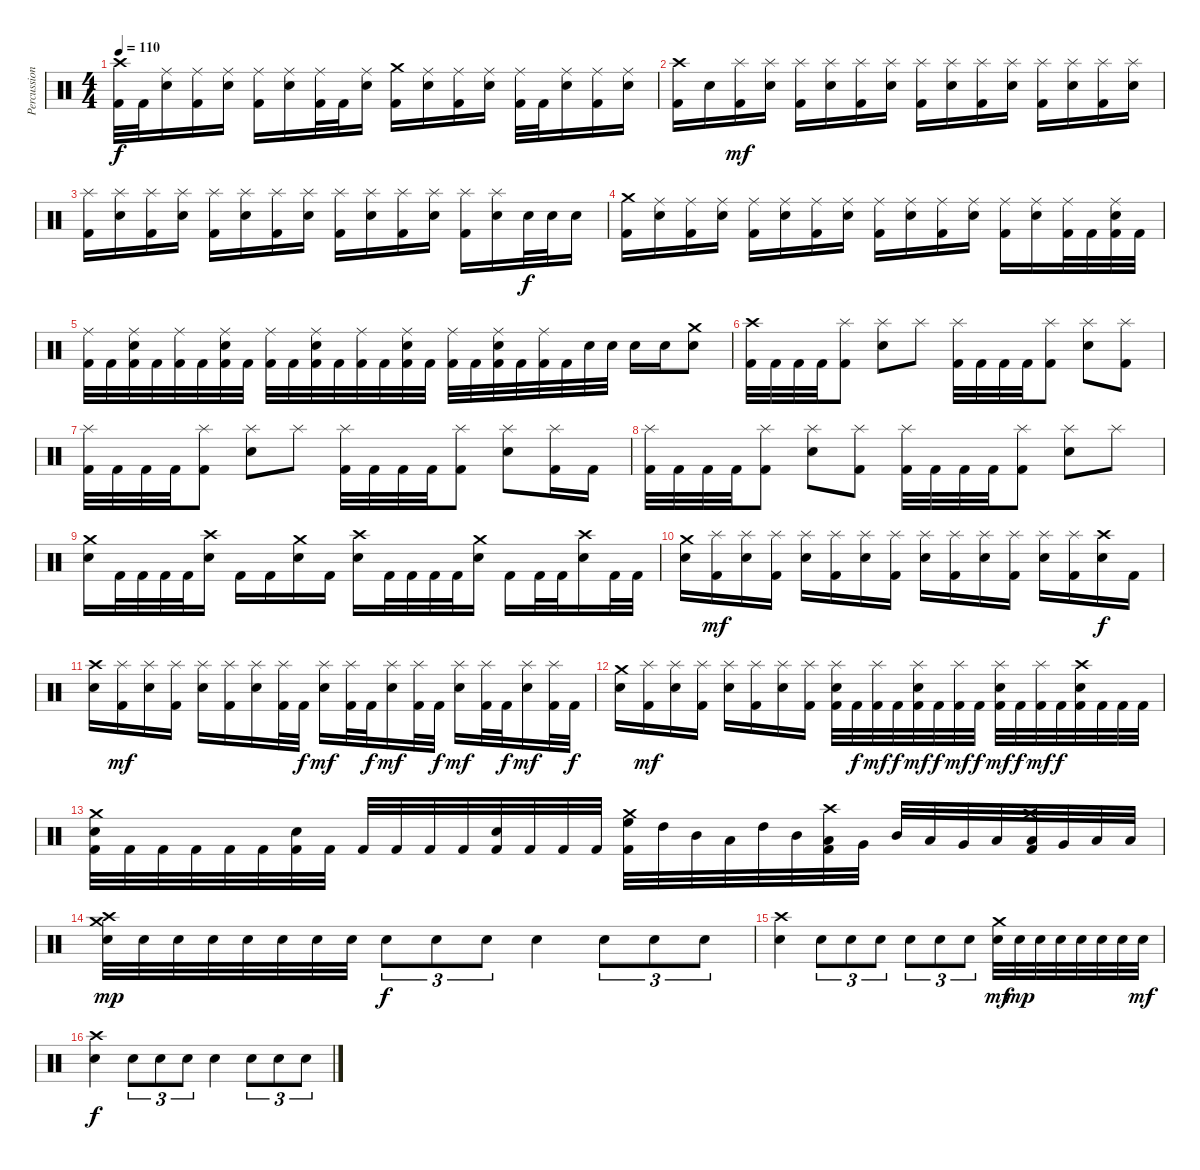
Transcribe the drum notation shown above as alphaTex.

\track ("Percussion" "Percussion") {instrument percussion}
\staff {score}
\articulation defaults
\ts (4 4)
\tempo 110
\clef neutral
\ks c
("Crash high (hit)" "Kick (hit) 2").32{dy f} "Kick (hit) 2".32 ("Ride (middle)" "Snare (hit) 2").16 ("Ride (middle)" "Kick (hit) 2").16 ("Ride (middle)" "Snare (hit) 2").16 ("Ride (middle)" "Kick (hit) 2").16 ("Ride (middle)" "Snare (hit) 2").16 ("Ride (middle)" "Kick (hit) 2").32 "Kick (hit) 2".32 ("Ride (middle)" "Snare (hit) 2").16 ("Crash medium (hit)" "Kick (hit) 2").16 ("Ride (middle)" "Snare (hit) 2").16 ("Ride (middle)" "Kick (hit) 2").16 ("Ride (middle)" "Snare (hit) 2").16 ("Ride (middle)" "Kick (hit) 2").32 "Kick (hit) 2".32 ("Ride (middle)" "Snare (hit) 2").16 ("Ride (middle)" "Kick (hit) 2").16 ("Ride (middle)" "Snare (hit) 2").16 |
("Crash high (hit)" "Kick (hit) 2").16 "Snare (hit) 2".16 ("Splash (hit)" "Kick (hit) 2").16{dy mf} ("Splash (hit)" "Snare (hit) 2").16 ("Splash (hit)" "Kick (hit) 2").16 ("Splash (hit)" "Snare (hit) 2").16 ("Splash (hit)" "Kick (hit) 2").16 ("Splash (hit)" "Snare (hit) 2").16 ("Splash (hit)" "Kick (hit) 2").16 ("Splash (hit)" "Snare (hit) 2").16 ("Splash (hit)" "Kick (hit) 2").16 ("Splash (hit)" "Snare (hit) 2").16 ("Splash (hit)" "Kick (hit) 2").16 ("Splash (hit)" "Snare (hit) 2").16 ("Splash (hit)" "Kick (hit) 2").16 ("Splash (hit)" "Snare (hit) 2").16 |
("Splash (hit)" "Kick (hit) 2").16 ("Splash (hit)" "Snare (hit) 2").16 ("Splash (hit)" "Kick (hit) 2").16 ("Splash (hit)" "Snare (hit) 2").16 ("Splash (hit)" "Kick (hit) 2").16 ("Splash (hit)" "Snare (hit) 2").16 ("Splash (hit)" "Kick (hit) 2").16 ("Splash (hit)" "Snare (hit) 2").16 ("Splash (hit)" "Kick (hit) 2").16 ("Splash (hit)" "Snare (hit) 2").16 ("Splash (hit)" "Kick (hit) 2").16 ("Splash (hit)" "Snare (hit) 2").16 ("Splash (hit)" "Kick (hit) 2").16 ("Splash (hit)" "Snare (hit) 2").16 "Snare (hit) 2".32{dy f} "Snare (hit) 2".32 "Snare (hit) 2".16 |
("Crash medium (hit)" "Kick (hit) 2").16 ("Ride (middle)" "Snare (hit) 2").16 ("Ride (middle)" "Kick (hit) 2").16 ("Ride (middle)" "Snare (hit) 2").16 ("Ride (middle)" "Kick (hit) 2").16 ("Ride (middle)" "Snare (hit) 2").16 ("Ride (middle)" "Kick (hit) 2").16 ("Ride (middle)" "Snare (hit) 2").16 ("Ride (middle)" "Kick (hit) 2").16 ("Ride (middle)" "Snare (hit) 2").16 ("Ride (middle)" "Kick (hit) 2").16 ("Ride (middle)" "Snare (hit) 2").16 ("Ride (middle)" "Kick (hit) 2").16 ("Ride (middle)" "Snare (hit) 2").16 ("Ride (middle)" "Kick (hit) 2").32 "Kick (hit) 2".32 ("Ride (middle)" "Snare (hit) 2" "Kick (hit) 2").32 "Kick (hit) 2".32 |
("Ride (middle)" "Kick (hit) 2").32 "Kick (hit) 2".32 ("Ride (middle)" "Snare (hit) 2" "Kick (hit) 2").32 "Kick (hit) 2".32 ("Ride (middle)" "Kick (hit) 2").32 "Kick (hit) 2".32 ("Ride (middle)" "Snare (hit) 2" "Kick (hit) 2").32 "Kick (hit) 2".32 ("Ride (middle)" "Kick (hit) 2").32 "Kick (hit) 2".32 ("Ride (middle)" "Snare (hit) 2" "Kick (hit) 2").32 "Kick (hit) 2".32 ("Ride (middle)" "Kick (hit) 2").32 "Kick (hit) 2".32 ("Ride (middle)" "Snare (hit) 2" "Kick (hit) 2").32 "Kick (hit) 2".32 ("Ride (middle)" "Kick (hit) 2").32 "Kick (hit) 2".32 ("Ride (middle)" "Snare (hit) 2" "Kick (hit) 2").32 "Kick (hit) 2".32 ("Ride (middle)" "Kick (hit) 2").32 "Kick (hit) 2".32 "Snare (hit) 2".32 "Snare (hit) 2".32 "Snare (hit) 2".16 "Snare (hit) 2".16 ("Crash medium (hit)" "Snare (hit) 2").8 |
("Crash high (hit)" "Kick (hit) 2").32 "Kick (hit) 2".32 "Kick (hit) 2".32 "Kick (hit) 2".32 ("Splash (hit)" "Kick (hit) 2").8 ("Splash (hit)" "Snare (hit) 2").8 "Splash (hit)".8 ("Splash (hit)" "Kick (hit) 2").32 "Kick (hit) 2".32 "Kick (hit) 2".32 "Kick (hit) 2".32 ("Splash (hit)" "Kick (hit) 2").8 ("Splash (hit)" "Snare (hit) 2").8 ("Splash (hit)" "Kick (hit) 2").8 |
("Splash (hit)" "Kick (hit) 2").32 "Kick (hit) 2".32 "Kick (hit) 2".32 "Kick (hit) 2".32 ("Splash (hit)" "Kick (hit) 2").8 ("Splash (hit)" "Snare (hit) 2").8 "Splash (hit)".8 ("Splash (hit)" "Kick (hit) 2").32 "Kick (hit) 2".32 "Kick (hit) 2".32 "Kick (hit) 2".32 ("Splash (hit)" "Kick (hit) 2").8 ("Splash (hit)" "Snare (hit) 2").8 ("Splash (hit)" "Kick (hit) 2").16 "Kick (hit) 2".16 |
("Splash (hit)" "Kick (hit) 2").32 "Kick (hit) 2".32 "Kick (hit) 2".32 "Kick (hit) 2".32 ("Splash (hit)" "Kick (hit) 2").8 ("Splash (hit)" "Snare (hit) 2").8 ("Splash (hit)" "Kick (hit) 2").8 ("Splash (hit)" "Kick (hit) 2").32 "Kick (hit) 2".32 "Kick (hit) 2".32 "Kick (hit) 2".32 ("Splash (hit)" "Kick (hit) 2").8 ("Splash (hit)" "Snare (hit) 2").8 "Splash (hit)".8 |
("Crash medium (hit)" "Snare (hit) 2").16 "Kick (hit) 2".32 "Kick (hit) 2".32 "Kick (hit) 2".32 "Kick (hit) 2".32 ("Crash high (hit)" "Snare (hit) 2").16 "Kick (hit) 2".16 "Kick (hit) 2".16 ("Crash medium (hit)" "Snare (hit) 2").16 "Kick (hit) 2".16 ("Crash high (hit)" "Snare (hit) 2").16 "Kick (hit) 2".32 "Kick (hit) 2".32 "Kick (hit) 2".32 "Kick (hit) 2".32 ("Crash medium (hit)" "Snare (hit) 2").16 "Kick (hit) 2".16 "Kick (hit) 2".32 "Kick (hit) 2".32 ("Crash high (hit)" "Snare (hit) 2").16 "Kick (hit) 2".32 "Kick (hit) 2".32 |
("Crash medium (hit)" "Snare (hit) 2").16 ("Splash (hit)" "Kick (hit) 2").16{dy mf} ("Splash (hit)" "Snare (hit) 2").16 ("Splash (hit)" "Kick (hit) 2").16 ("Splash (hit)" "Snare (hit) 2").16 ("Splash (hit)" "Kick (hit) 2").16 ("Splash (hit)" "Snare (hit) 2").16 ("Splash (hit)" "Kick (hit) 2").16 ("Splash (hit)" "Snare (hit) 2").16 ("Splash (hit)" "Kick (hit) 2").16 ("Splash (hit)" "Snare (hit) 2").16 ("Splash (hit)" "Kick (hit) 2").16 ("Splash (hit)" "Snare (hit) 2").16 ("Splash (hit)" "Kick (hit) 2").16 ("Crash high (hit)" "Snare (hit) 2").16{dy f} "Kick (hit) 2".16 |
("Crash high (hit)" "Snare (hit) 2").16 ("Splash (hit)" "Kick (hit) 2").16{dy mf} ("Splash (hit)" "Snare (hit) 2").16 ("Splash (hit)" "Kick (hit) 2").16 ("Splash (hit)" "Snare (hit) 2").16 ("Splash (hit)" "Kick (hit) 2").16 ("Splash (hit)" "Snare (hit) 2").16 ("Splash (hit)" "Kick (hit) 2").32 "Kick (hit) 2".32{dy f} ("Splash (hit)" "Snare (hit) 2").16{dy mf} ("Splash (hit)" "Kick (hit) 2").32 "Kick (hit) 2".32{dy f} ("Splash (hit)" "Snare (hit) 2").16{dy mf} ("Splash (hit)" "Kick (hit) 2").32 "Kick (hit) 2".32{dy f} ("Splash (hit)" "Snare (hit) 2").16{dy mf} ("Splash (hit)" "Kick (hit) 2").32 "Kick (hit) 2".32{dy f} ("Splash (hit)" "Snare (hit) 2").16{dy mf} ("Splash (hit)" "Kick (hit) 2").32 "Kick (hit) 2".32{dy f} |
("Crash medium (hit)" "Snare (hit) 2").16 ("Splash (hit)" "Kick (hit) 2").16{dy mf} ("Splash (hit)" "Snare (hit) 2").16 ("Splash (hit)" "Kick (hit) 2").16 ("Splash (hit)" "Snare (hit) 2").16 ("Splash (hit)" "Kick (hit) 2").16 ("Splash (hit)" "Snare (hit) 2").16 ("Splash (hit)" "Kick (hit) 2").16 ("Splash (hit)" "Snare (hit) 2" "Kick (hit) 2").32 "Kick (hit) 2".32{dy f} ("Splash (hit)" "Kick (hit) 2").32{dy mf} "Kick (hit) 2".32{dy f} ("Splash (hit)" "Snare (hit) 2" "Kick (hit) 2").32{dy mf} "Kick (hit) 2".32{dy f} ("Splash (hit)" "Kick (hit) 2").32{dy mf} "Kick (hit) 2".32{dy f} ("Splash (hit)" "Snare (hit) 2" "Kick (hit) 2").32{dy mf} "Kick (hit) 2".32{dy f} ("Splash (hit)" "Kick (hit) 2").32{dy mf} "Kick (hit) 2".32{dy f} ("Crash high (hit)" "Snare (hit) 2" "Kick (hit) 2").32 "Kick (hit) 2".32 "Kick (hit) 2".32 "Kick (hit) 2".32 |
("Crash medium (hit)" "Snare (hit) 2" "Kick (hit) 2").32 "Kick (hit) 2".32 "Kick (hit) 2".32 "Kick (hit) 2".32 "Kick (hit) 2".32 "Kick (hit) 2".32 ("Snare (hit) 2" "Kick (hit) 2").32 "Kick (hit) 2".32 "Kick (hit) 2".32 "Kick (hit) 2".32 "Kick (hit) 2".32 "Kick (hit) 2".32 ("Snare (hit) 2" "Kick (hit) 2").32 "Kick (hit) 2".32 "Kick (hit) 2".32 "Kick (hit) 2".32 ("Crash medium (hit)" "Kick (hit) 2" "High Floor Tom (hit)").32 "High Tom (hit)".32 "Mid Tom (hit)".32 "Low Tom (hit)".32 "High Tom (hit)".32 "Mid Tom (hit)".32 ("Crash high (hit)" "Kick (hit) 2" "Low Tom (hit)").32 "Very Low Tom (hit)".32 "Mid Tom (hit)".32 "Low Tom (hit)".32 "Very Low Tom (hit)".32 "Low Floor Tom (hit)".32 ("Crash medium (hit)" "Kick (hit) 2" "Low Tom (hit)").32 "Very Low Tom (hit)".32 "Low Floor Tom (hit)".32 "Low Floor Tom (hit)".32 |
\section ("" "")
("Crash high (hit)" "Crash medium (hit)" "Snare (hit) 2").32{dy mp} "Snare (hit) 2".32 "Snare (hit) 2".32 "Snare (hit) 2".32 "Snare (hit) 2".32 "Snare (hit) 2".32 "Snare (hit) 2".32 "Snare (hit) 2".32 "Snare (hit) 2".8{tu (3 2) dy f} "Snare (hit) 2".8{tu (3 2)} "Snare (hit) 2".8{tu (3 2)} "Snare (hit) 2".4 "Snare (hit) 2".8{tu (3 2)} "Snare (hit) 2".8{tu (3 2)} "Snare (hit) 2".8{tu (3 2)} |
("Crash high (hit)" "Snare (hit) 2").4 "Snare (hit) 2".8{tu (3 2)} "Snare (hit) 2".8{tu (3 2)} "Snare (hit) 2".8{tu (3 2)} "Snare (hit) 2".8{tu (3 2)} "Snare (hit) 2".8{tu (3 2)} "Snare (hit) 2".8{tu (3 2)} ("Crash medium (hit)" "Snare (hit) 2").32{dy mf} "Snare (hit) 2".32{dy mp} "Snare (hit) 2".32 "Snare (hit) 2".32 "Snare (hit) 2".32 "Snare (hit) 2".32 "Snare (hit) 2".32 "Snare (hit) 2".32{dy mf} |
("Crash high (hit)" "Snare (hit) 2").4{dy f} "Snare (hit) 2".8{tu (3 2)} "Snare (hit) 2".8{tu (3 2)} "Snare (hit) 2".8{tu (3 2)} "Snare (hit) 2".4 "Snare (hit) 2".8{tu (3 2)} "Snare (hit) 2".8{tu (3 2)} "Snare (hit) 2".8{tu (3 2)}
